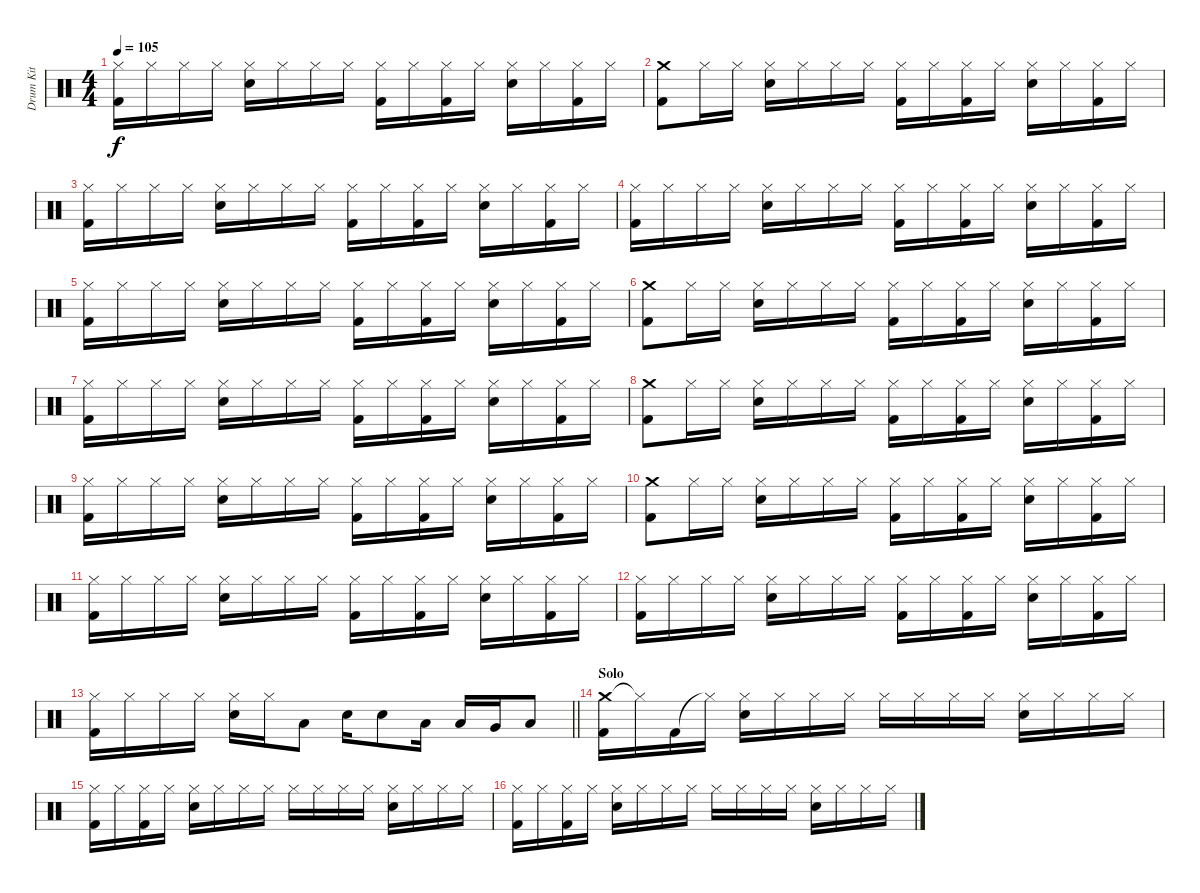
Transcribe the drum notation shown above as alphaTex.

\track ("Drum Kit" "Drum Kit") {instrument percussion}
\staff {score}
\articulation defaults
\ts (4 4)
\tempo 105
\clef neutral
\ks c
("Hi-Hat (closed)" "Kick (hit) 2").16{dy f} "Hi-Hat (closed)".16 "Hi-Hat (closed)".16 "Hi-Hat (closed)".16 ("Hi-Hat (closed)" "Electric Snare (hit)").16 "Hi-Hat (closed)".16 "Hi-Hat (closed)".16 "Hi-Hat (closed)".16 ("Hi-Hat (closed)" "Kick (hit) 2").16 "Hi-Hat (closed)".16 ("Hi-Hat (closed)" "Kick (hit) 2").16 "Hi-Hat (closed)".16 ("Hi-Hat (closed)" "Electric Snare (hit)").16 "Hi-Hat (closed)".16 ("Hi-Hat (closed)" "Kick (hit) 2").16 "Hi-Hat (closed)".16 |
("Crash medium (hit)" "Kick (hit) 2").8 "Hi-Hat (closed)".16 "Hi-Hat (closed)".16 ("Hi-Hat (closed)" "Electric Snare (hit)").16 "Hi-Hat (closed)".16 "Hi-Hat (closed)".16 "Hi-Hat (closed)".16 ("Hi-Hat (closed)" "Kick (hit) 2").16 "Hi-Hat (closed)".16 ("Hi-Hat (closed)" "Kick (hit) 2").16 "Hi-Hat (closed)".16 ("Hi-Hat (closed)" "Electric Snare (hit)").16 "Hi-Hat (closed)".16 ("Hi-Hat (closed)" "Kick (hit) 2").16 "Hi-Hat (closed)".16 |
("Hi-Hat (closed)" "Kick (hit) 2").16 "Hi-Hat (closed)".16 "Hi-Hat (closed)".16 "Hi-Hat (closed)".16 ("Hi-Hat (closed)" "Electric Snare (hit)").16 "Hi-Hat (closed)".16 "Hi-Hat (closed)".16 "Hi-Hat (closed)".16 ("Hi-Hat (closed)" "Kick (hit) 2").16 "Hi-Hat (closed)".16 ("Hi-Hat (closed)" "Kick (hit) 2").16 "Hi-Hat (closed)".16 ("Hi-Hat (closed)" "Electric Snare (hit)").16 "Hi-Hat (closed)".16 ("Hi-Hat (closed)" "Kick (hit) 2").16 "Hi-Hat (closed)".16 |
("Hi-Hat (closed)" "Kick (hit) 2").16 "Hi-Hat (closed)".16 "Hi-Hat (closed)".16 "Hi-Hat (closed)".16 ("Hi-Hat (closed)" "Electric Snare (hit)").16 "Hi-Hat (closed)".16 "Hi-Hat (closed)".16 "Hi-Hat (closed)".16 ("Hi-Hat (closed)" "Kick (hit) 2").16 "Hi-Hat (closed)".16 ("Hi-Hat (closed)" "Kick (hit) 2").16 "Hi-Hat (closed)".16 ("Hi-Hat (closed)" "Electric Snare (hit)").16 "Hi-Hat (closed)".16 ("Hi-Hat (closed)" "Kick (hit) 2").16 "Hi-Hat (closed)".16 |
("Hi-Hat (closed)" "Kick (hit) 2").16 "Hi-Hat (closed)".16 "Hi-Hat (closed)".16 "Hi-Hat (closed)".16 ("Hi-Hat (closed)" "Electric Snare (hit)").16 "Hi-Hat (closed)".16 "Hi-Hat (closed)".16 "Hi-Hat (closed)".16 ("Hi-Hat (closed)" "Kick (hit) 2").16 "Hi-Hat (closed)".16 ("Hi-Hat (closed)" "Kick (hit) 2").16 "Hi-Hat (closed)".16 ("Hi-Hat (closed)" "Electric Snare (hit)").16 "Hi-Hat (closed)".16 ("Hi-Hat (closed)" "Kick (hit) 2").16 "Hi-Hat (closed)".16 |
("Crash medium (hit)" "Kick (hit) 2").8 "Hi-Hat (closed)".16 "Hi-Hat (closed)".16 ("Hi-Hat (closed)" "Electric Snare (hit)").16 "Hi-Hat (closed)".16 "Hi-Hat (closed)".16 "Hi-Hat (closed)".16 ("Hi-Hat (closed)" "Kick (hit) 2").16 "Hi-Hat (closed)".16 ("Hi-Hat (closed)" "Kick (hit) 2").16 "Hi-Hat (closed)".16 ("Hi-Hat (closed)" "Electric Snare (hit)").16 "Hi-Hat (closed)".16 ("Hi-Hat (closed)" "Kick (hit) 2").16 "Hi-Hat (closed)".16 |
("Hi-Hat (closed)" "Kick (hit) 2").16 "Hi-Hat (closed)".16 "Hi-Hat (closed)".16 "Hi-Hat (closed)".16 ("Hi-Hat (closed)" "Electric Snare (hit)").16 "Hi-Hat (closed)".16 "Hi-Hat (closed)".16 "Hi-Hat (closed)".16 ("Hi-Hat (closed)" "Kick (hit) 2").16 "Hi-Hat (closed)".16 ("Hi-Hat (closed)" "Kick (hit) 2").16 "Hi-Hat (closed)".16 ("Hi-Hat (closed)" "Electric Snare (hit)").16 "Hi-Hat (closed)".16 ("Hi-Hat (closed)" "Kick (hit) 2").16 "Hi-Hat (closed)".16 |
("Crash medium (hit)" "Kick (hit) 2").8 "Hi-Hat (closed)".16 "Hi-Hat (closed)".16 ("Hi-Hat (closed)" "Electric Snare (hit)").16 "Hi-Hat (closed)".16 "Hi-Hat (closed)".16 "Hi-Hat (closed)".16 ("Hi-Hat (closed)" "Kick (hit) 2").16 "Hi-Hat (closed)".16 ("Hi-Hat (closed)" "Kick (hit) 2").16 "Hi-Hat (closed)".16 ("Hi-Hat (closed)" "Electric Snare (hit)").16 "Hi-Hat (closed)".16 ("Hi-Hat (closed)" "Kick (hit) 2").16 "Hi-Hat (closed)".16 |
("Hi-Hat (closed)" "Kick (hit) 2").16 "Hi-Hat (closed)".16 "Hi-Hat (closed)".16 "Hi-Hat (closed)".16 ("Hi-Hat (closed)" "Electric Snare (hit)").16 "Hi-Hat (closed)".16 "Hi-Hat (closed)".16 "Hi-Hat (closed)".16 ("Hi-Hat (closed)" "Kick (hit) 2").16 "Hi-Hat (closed)".16 ("Hi-Hat (closed)" "Kick (hit) 2").16 "Hi-Hat (closed)".16 ("Hi-Hat (closed)" "Electric Snare (hit)").16 "Hi-Hat (closed)".16 ("Hi-Hat (closed)" "Kick (hit) 2").16 "Hi-Hat (closed)".16 |
("Crash medium (hit)" "Kick (hit) 2").8 "Hi-Hat (closed)".16 "Hi-Hat (closed)".16 ("Hi-Hat (closed)" "Electric Snare (hit)").16 "Hi-Hat (closed)".16 "Hi-Hat (closed)".16 "Hi-Hat (closed)".16 ("Hi-Hat (closed)" "Kick (hit) 2").16 "Hi-Hat (closed)".16 ("Hi-Hat (closed)" "Kick (hit) 2").16 "Hi-Hat (closed)".16 ("Hi-Hat (closed)" "Electric Snare (hit)").16 "Hi-Hat (closed)".16 ("Hi-Hat (closed)" "Kick (hit) 2").16 "Hi-Hat (closed)".16 |
("Hi-Hat (closed)" "Kick (hit) 2").16 "Hi-Hat (closed)".16 "Hi-Hat (closed)".16 "Hi-Hat (closed)".16 ("Hi-Hat (closed)" "Electric Snare (hit)").16 "Hi-Hat (closed)".16 "Hi-Hat (closed)".16 "Hi-Hat (closed)".16 ("Hi-Hat (closed)" "Kick (hit) 2").16 "Hi-Hat (closed)".16 ("Hi-Hat (closed)" "Kick (hit) 2").16 "Hi-Hat (closed)".16 ("Hi-Hat (closed)" "Electric Snare (hit)").16 "Hi-Hat (closed)".16 ("Hi-Hat (closed)" "Kick (hit) 2").16 "Hi-Hat (closed)".16 |
("Hi-Hat (closed)" "Kick (hit) 2").16 "Hi-Hat (closed)".16 "Hi-Hat (closed)".16 "Hi-Hat (closed)".16 ("Hi-Hat (closed)" "Electric Snare (hit)").16 "Hi-Hat (closed)".16 "Hi-Hat (closed)".16 "Hi-Hat (closed)".16 ("Hi-Hat (closed)" "Kick (hit) 2").16 "Hi-Hat (closed)".16 ("Hi-Hat (closed)" "Kick (hit) 2").16 "Hi-Hat (closed)".16 ("Hi-Hat (closed)" "Electric Snare (hit)").16 "Hi-Hat (closed)".16 ("Hi-Hat (closed)" "Kick (hit) 2").16 "Hi-Hat (closed)".16 |
\barLineRight lightlight
("Hi-Hat (closed)" "Kick (hit) 2").16 "Hi-Hat (closed)".16 "Hi-Hat (closed)".16 "Hi-Hat (closed)".16 ("Hi-Hat (closed)" "Electric Snare (hit)").16 "Hi-Hat (closed)".16 "Low Tom (hit)".8 "Electric Snare (hit)".16 "Electric Snare (hit)".8 "Low Tom (hit)".16 "Low Tom (hit)".16 "Very Low Tom (hit)".16 "Low Floor Tom (hit)".8 |
\section ("" "Solo")
("Crash medium (hit)" "Kick (hit) 2").16 "Hi-Hat (closed)"{t}.16 "Kick (hit) 2".16 "Hi-Hat (closed)"{t}.16 ("Hi-Hat (closed)" "Electric Snare (hit)").16 "Hi-Hat (closed)".16 "Hi-Hat (closed)".16 "Hi-Hat (closed)".16 "Hi-Hat (closed)".16 "Hi-Hat (closed)".16 "Hi-Hat (closed)".16 "Hi-Hat (closed)".16 ("Hi-Hat (closed)" "Electric Snare (hit)").16 "Hi-Hat (closed)".16 "Hi-Hat (closed)".16 "Hi-Hat (closed)".16 |
("Hi-Hat (closed)" "Kick (hit) 2").16 "Hi-Hat (closed)".16 ("Hi-Hat (closed)" "Kick (hit) 2").16 "Hi-Hat (closed)".16 ("Hi-Hat (closed)" "Electric Snare (hit)").16 "Hi-Hat (closed)".16 "Hi-Hat (closed)".16 "Hi-Hat (closed)".16 "Hi-Hat (closed)".16 "Hi-Hat (closed)".16 "Hi-Hat (closed)".16 "Hi-Hat (closed)".16 ("Hi-Hat (closed)" "Electric Snare (hit)").16 "Hi-Hat (closed)".16 "Hi-Hat (closed)".16 "Hi-Hat (closed)".16 |
("Hi-Hat (closed)" "Kick (hit) 2").16 "Hi-Hat (closed)".16 ("Hi-Hat (closed)" "Kick (hit) 2").16 "Hi-Hat (closed)".16 ("Hi-Hat (closed)" "Electric Snare (hit)").16 "Hi-Hat (closed)".16 "Hi-Hat (closed)".16 "Hi-Hat (closed)".16 "Hi-Hat (closed)".16 "Hi-Hat (closed)".16 "Hi-Hat (closed)".16 "Hi-Hat (closed)".16 ("Hi-Hat (closed)" "Electric Snare (hit)").16 "Hi-Hat (closed)".16 "Hi-Hat (closed)".16 "Hi-Hat (closed)".16
